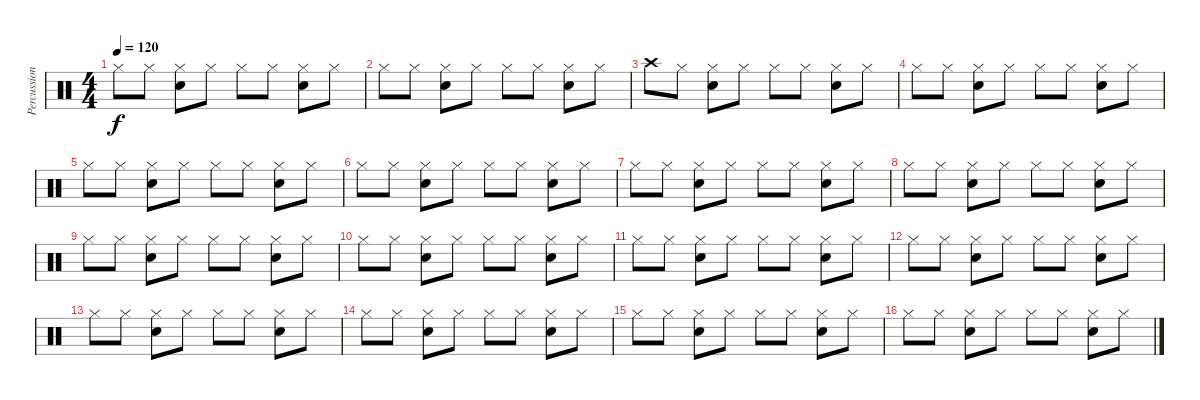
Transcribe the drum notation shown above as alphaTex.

\track ("Percussion      " "Percussion") {instrument percussion}
\staff {score}
\articulation defaults
\ts (4 4)
\tempo 120
\clef neutral
\ks c "Hi-Hat (closed)".8{dy f} "Hi-Hat (closed)".8
("Hi-Hat (closed)" "Snare (hit) 2").8 "Hi-Hat (closed)".8 "Hi-Hat (closed)".8 "Hi-Hat (closed)".8 ("Hi-Hat (closed)" "Snare (hit) 2").8 "Hi-Hat (closed)".8 |
"Hi-Hat (closed)".8 "Hi-Hat (closed)".8 ("Hi-Hat (closed)" "Snare (hit) 2").8 "Hi-Hat (closed)".8 "Hi-Hat (closed)".8 "Hi-Hat (closed)".8 ("Hi-Hat (closed)" "Snare (hit) 2").8 "Hi-Hat (closed)".8 |
"Crash high (hit)".8 "Hi-Hat (closed)".8 ("Hi-Hat (closed)" "Snare (hit) 2").8 "Hi-Hat (closed)".8 "Hi-Hat (closed)".8 "Hi-Hat (closed)".8 ("Hi-Hat (closed)" "Snare (hit) 2").8 "Hi-Hat (closed)".8 |
"Hi-Hat (closed)".8 "Hi-Hat (closed)".8 ("Hi-Hat (closed)" "Snare (hit) 2").8 "Hi-Hat (closed)".8 "Hi-Hat (closed)".8 "Hi-Hat (closed)".8 ("Hi-Hat (closed)" "Snare (hit) 2").8 "Hi-Hat (closed)".8 |
"Hi-Hat (closed)".8 "Hi-Hat (closed)".8 ("Hi-Hat (closed)" "Snare (hit) 2").8 "Hi-Hat (closed)".8 "Hi-Hat (closed)".8 "Hi-Hat (closed)".8 ("Hi-Hat (closed)" "Snare (hit) 2").8 "Hi-Hat (closed)".8 |
"Hi-Hat (closed)".8 "Hi-Hat (closed)".8 ("Hi-Hat (closed)" "Snare (hit) 2").8 "Hi-Hat (closed)".8 "Hi-Hat (closed)".8 "Hi-Hat (closed)".8 ("Hi-Hat (closed)" "Snare (hit) 2").8 "Hi-Hat (closed)".8 |
"Hi-Hat (closed)".8 "Hi-Hat (closed)".8 ("Hi-Hat (closed)" "Snare (hit) 2").8 "Hi-Hat (closed)".8 "Hi-Hat (closed)".8 "Hi-Hat (closed)".8 ("Hi-Hat (closed)" "Snare (hit) 2").8 "Hi-Hat (closed)".8 |
"Hi-Hat (closed)".8 "Hi-Hat (closed)".8 ("Hi-Hat (closed)" "Snare (hit) 2").8 "Hi-Hat (closed)".8 "Hi-Hat (closed)".8 "Hi-Hat (closed)".8 ("Hi-Hat (closed)" "Snare (hit) 2").8 "Hi-Hat (closed)".8 |
"Hi-Hat (closed)".8 "Hi-Hat (closed)".8 ("Hi-Hat (closed)" "Snare (hit) 2").8 "Hi-Hat (closed)".8 "Hi-Hat (closed)".8 "Hi-Hat (closed)".8 ("Hi-Hat (closed)" "Snare (hit) 2").8 "Hi-Hat (closed)".8 |
"Hi-Hat (closed)".8 "Hi-Hat (closed)".8 ("Hi-Hat (closed)" "Snare (hit) 2").8 "Hi-Hat (closed)".8 "Hi-Hat (closed)".8 "Hi-Hat (closed)".8 ("Hi-Hat (closed)" "Snare (hit) 2").8 "Hi-Hat (closed)".8 |
"Hi-Hat (closed)".8 "Hi-Hat (closed)".8 ("Hi-Hat (closed)" "Snare (hit) 2").8 "Hi-Hat (closed)".8 "Hi-Hat (closed)".8 "Hi-Hat (closed)".8 ("Hi-Hat (closed)" "Snare (hit) 2").8 "Hi-Hat (closed)".8 |
"Hi-Hat (closed)".8 "Hi-Hat (closed)".8 ("Hi-Hat (closed)" "Snare (hit) 2").8 "Hi-Hat (closed)".8 "Hi-Hat (closed)".8 "Hi-Hat (closed)".8 ("Hi-Hat (closed)" "Snare (hit) 2").8 "Hi-Hat (closed)".8 |
"Hi-Hat (closed)".8 "Hi-Hat (closed)".8 ("Hi-Hat (closed)" "Snare (hit) 2").8 "Hi-Hat (closed)".8 "Hi-Hat (closed)".8 "Hi-Hat (closed)".8 ("Hi-Hat (closed)" "Snare (hit) 2").8 "Hi-Hat (closed)".8 |
"Hi-Hat (closed)".8 "Hi-Hat (closed)".8 ("Hi-Hat (closed)" "Snare (hit) 2").8 "Hi-Hat (closed)".8 "Hi-Hat (closed)".8 "Hi-Hat (closed)".8 ("Hi-Hat (closed)" "Snare (hit) 2").8 "Hi-Hat (closed)".8 |
"Hi-Hat (closed)".8 "Hi-Hat (closed)".8 ("Hi-Hat (closed)" "Snare (hit) 2").8 "Hi-Hat (closed)".8 "Hi-Hat (closed)".8 "Hi-Hat (closed)".8 ("Hi-Hat (closed)" "Snare (hit) 2").8 "Hi-Hat (closed)".8 |
"Hi-Hat (closed)".8 "Hi-Hat (closed)".8 ("Hi-Hat (closed)" "Snare (hit) 2").8 "Hi-Hat (closed)".8 "Hi-Hat (closed)".8 "Hi-Hat (closed)".8 ("Hi-Hat (closed)" "Snare (hit) 2").8 "Hi-Hat (closed)".8
